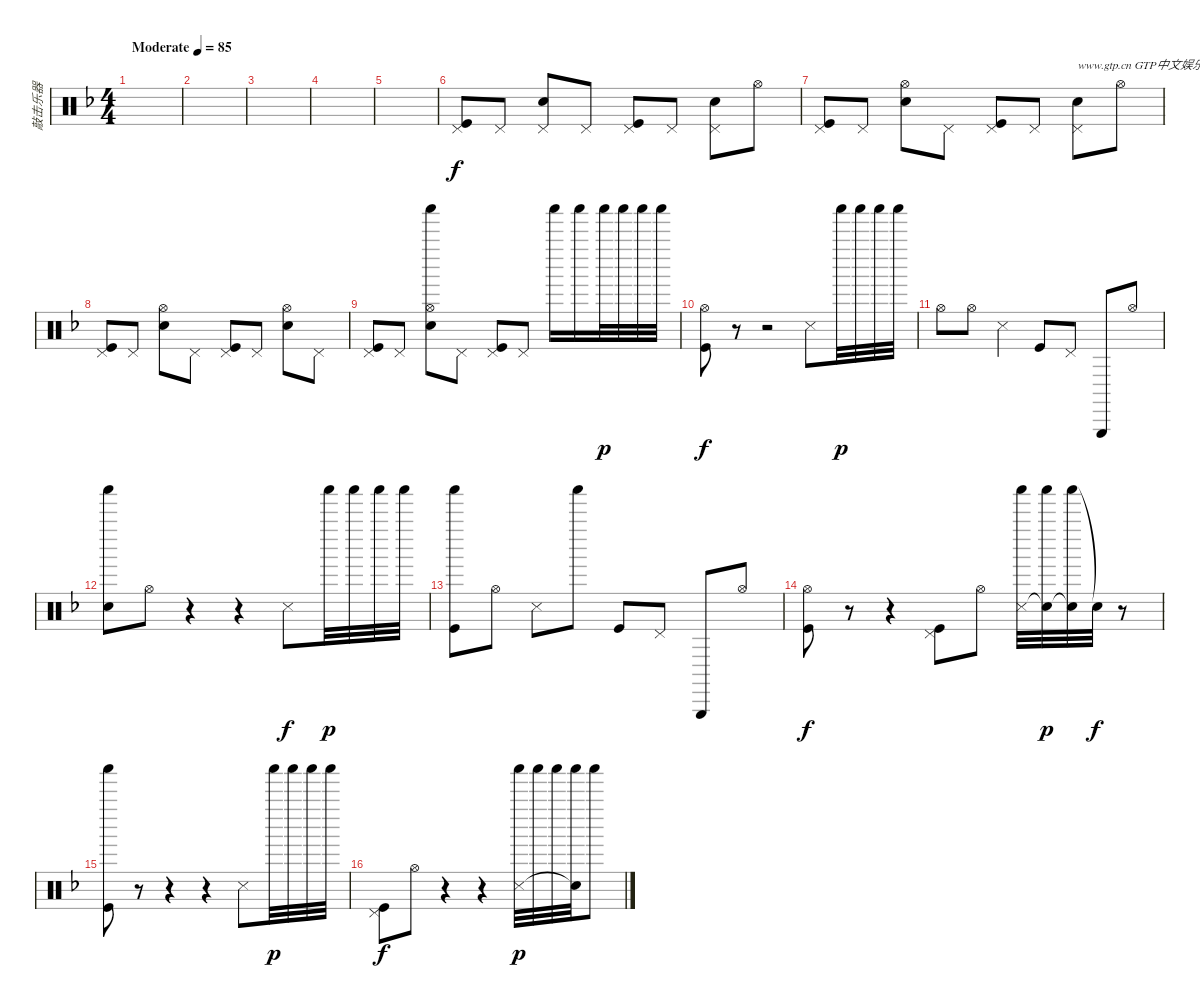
\track ("敲击乐器" "敲击乐器") {instrument percussion}
\staff {score}
\articulation defaults
\ts (4 4)
\tempo (85 "Moderate")
\clef neutral
\ks f
|
|
|
|
|
("Pedal Hi-Hat (hit)" "Kick (hit)").8 "Pedal Hi-Hat (hit)".8 ("Pedal Hi-Hat (hit)" "Snare (hit) 2").8 "Pedal Hi-Hat (hit)".8 ("Pedal Hi-Hat (hit)" "Kick (hit)").8 "Pedal Hi-Hat (hit)".8 ("Pedal Hi-Hat (hit)" "Snare (hit) 2").8 "Hi-Hat (open)".8 |
("Pedal Hi-Hat (hit)" "Kick (hit)").8 "Pedal Hi-Hat (hit)".8 ("Hi-Hat (open)" "Snare (hit) 2").8 "Pedal Hi-Hat (hit)".8 ("Pedal Hi-Hat (hit)" "Kick (hit)").8 "Pedal Hi-Hat (hit)".8 ("Pedal Hi-Hat (hit)" "Snare (hit) 2").8{txt "www.gtp.cn GTP中文娱乐网为您提供优秀的谱子"} "Hi-Hat (open)".8 |
("Pedal Hi-Hat (hit)" "Kick (hit)").8 "Pedal Hi-Hat (hit)".8 ("Hi-Hat (open)" "Snare (hit) 2").8 "Pedal Hi-Hat (hit)".8 ("Pedal Hi-Hat (hit)" "Kick (hit)").8 "Pedal Hi-Hat (hit)".8 ("Hi-Hat (open)" "Snare (hit) 2").8 "Pedal Hi-Hat (hit)".8 |
("Pedal Hi-Hat (hit)" "Kick (hit)").8 "Pedal Hi-Hat (hit)".8 ("Hi-Hat (open)" "Shaker (hit)" "Snare (hit) 2").8 "Pedal Hi-Hat (hit)".8 ("Pedal Hi-Hat (hit)" "Kick (hit)").8 "Pedal Hi-Hat (hit)".8 "Shaker (hit)".16 "Shaker (hit)".16 "Shaker (hit)".32{dy p} "Shaker (hit)".32 "Shaker (hit)".32 "Shaker (hit)".32 |
("Hi-Hat (open)" "Kick (hit)").8{dy f} r.8 r.2 "Snare (side stick) 3".8 "Shaker (hit)".32{dy p} "Shaker (hit)".32 "Shaker (hit)".32 "Shaker (hit)".32 |
"Hi-Hat (open)".8 "Hi-Hat (open)".8 "Snare (side stick) 3".4 "Kick (hit)".8 "Pedal Hi-Hat (hit)".8 "Triangle (hit)".8 "Hi-Hat (open)".8 |
("Shaker (hit)" "Snare (hit) 2").8 "Hi-Hat (open)".8 r.4 r.4 "Snare (side stick) 3".8{dy f} "Shaker (hit)".32{dy p} "Shaker (hit)".32 "Shaker (hit)".32 "Shaker (hit)".32 |
("Shaker (hit)" "Kick (hit)").8 "Hi-Hat (open)".8 "Snare (side stick) 3".8 "Shaker (hit)".8 "Kick (hit)".8 "Pedal Hi-Hat (hit)".8 "Triangle (hit)".8 "Hi-Hat (open)".8 |
("Hi-Hat (open)" "Kick (hit)").8{dy f} r.8 r.4 ("Pedal Hi-Hat (hit)" "Kick (hit)").8 "Hi-Hat (open)".8 ("Shaker (hit)" "Snare (side stick) 3").32 ("Shaker (hit)" "Snare (hit)"{t}).32{dy p} ("Shaker (hit)" "Snare (hit)"{t}).32 "Snare (hit)"{t}.32{dy f} r.8 |
("Shaker (hit)" "Kick (hit)").8 r.8 r.4 r.4 "Snare (side stick) 3".8 "Shaker (hit)".32{dy p} "Shaker (hit)".32 "Shaker (hit)".32 "Shaker (hit)".32 |
("Pedal Hi-Hat (hit)" "Kick (hit)").8{dy f} "Hi-Hat (open)".8 r.4 r.4 ("Shaker (hit)" "Snare (side stick) 3").32{dy p} "Shaker (hit)".32 "Shaker (hit)".32 ("Shaker (hit)" "Snare (hit)"{t}).32 "Shaker (hit)".8
